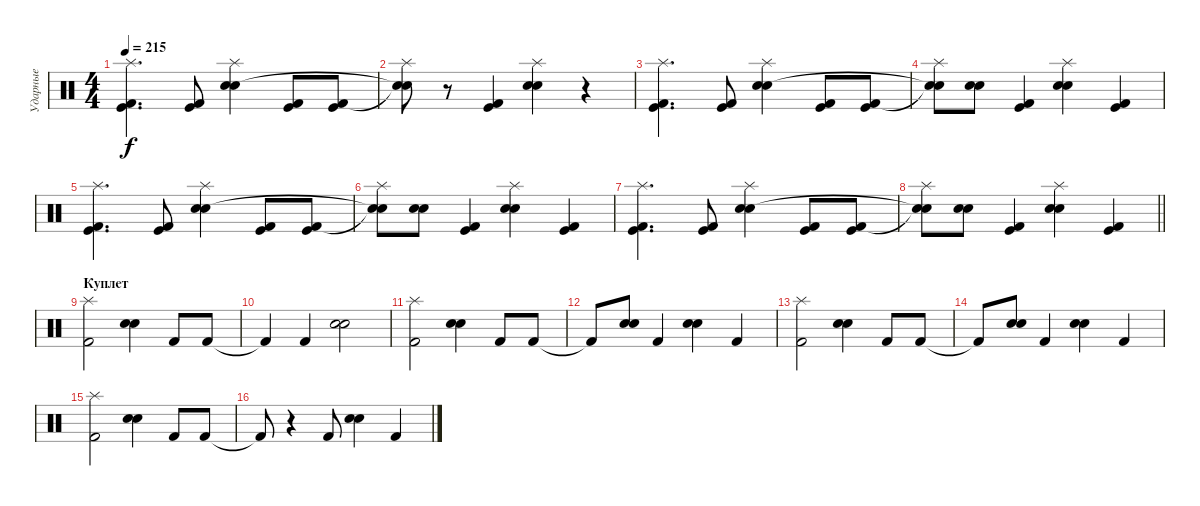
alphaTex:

\track ("Ударные" "Ударные") {instrument percussion}
\staff {score}
\articulation defaults
\ts (4 4)
\tempo 215
\clef neutral
\ks c
("Splash (hit)" "Kick (hit)" "Kick (hit) 2").4{d dy f} ("Kick (hit)" "Kick (hit) 2").8 ("Splash (hit)" "Electric Snare (hit)" "Snare (hit) 2").4 ("Kick (hit)" "Kick (hit) 2").8 ("Kick (hit)" "Kick (hit) 2").8 |
("Splash (hit)" "Snare (hit)"{t} "Snare (hit)"{t}).8 r.8 ("Kick (hit)" "Kick (hit) 2").4 ("Splash (hit)" "Electric Snare (hit)" "Snare (hit) 2").4 r.4 |
("Splash (hit)" "Kick (hit)" "Kick (hit) 2").4{d} ("Kick (hit)" "Kick (hit) 2").8 ("Splash (hit)" "Electric Snare (hit)" "Snare (hit) 2").4 ("Kick (hit)" "Kick (hit) 2").8 ("Kick (hit)" "Kick (hit) 2").8 |
("Splash (hit)" "Snare (hit)"{t} "Snare (hit)"{t}).8 ("Electric Snare (hit)" "Snare (hit) 2").8 ("Kick (hit)" "Kick (hit) 2").4 ("Splash (hit)" "Electric Snare (hit)" "Snare (hit) 2").4 ("Kick (hit)" "Kick (hit) 2").4 |
("Splash (hit)" "Kick (hit)" "Kick (hit) 2").4{d} ("Kick (hit)" "Kick (hit) 2").8 ("Splash (hit)" "Electric Snare (hit)" "Snare (hit) 2").4 ("Kick (hit)" "Kick (hit) 2").8 ("Kick (hit)" "Kick (hit) 2").8 |
("Splash (hit)" "Snare (hit)"{t} "Snare (hit)"{t}).8 ("Electric Snare (hit)" "Snare (hit) 2").8 ("Kick (hit)" "Kick (hit) 2").4 ("Splash (hit)" "Electric Snare (hit)" "Snare (hit) 2").4 ("Kick (hit)" "Kick (hit) 2").4 |
("Splash (hit)" "Kick (hit)" "Kick (hit) 2").4{d} ("Kick (hit)" "Kick (hit) 2").8 ("Splash (hit)" "Electric Snare (hit)" "Snare (hit) 2").4 ("Kick (hit)" "Kick (hit) 2").8 ("Kick (hit)" "Kick (hit) 2").8 |
\barLineRight lightlight
("Splash (hit)" "Snare (hit)"{t} "Snare (hit)"{t}).8 ("Electric Snare (hit)" "Snare (hit) 2").8 ("Kick (hit)" "Kick (hit) 2").4 ("Splash (hit)" "Electric Snare (hit)" "Snare (hit) 2").4 ("Kick (hit)" "Kick (hit) 2").4 |
\section ("" "Куплет")
("Splash (hit)" "Kick (hit) 2").2 ("Electric Snare (hit)" "Snare (hit) 2").4 "Kick (hit) 2".8 "Kick (hit) 2".8 |
"Kick (hit) 2"{t}.4 "Kick (hit) 2".4 ("Electric Snare (hit)" "Snare (hit) 2").2 |
("Splash (hit)" "Kick (hit) 2").2 ("Electric Snare (hit)" "Snare (hit) 2").4 "Kick (hit) 2".8 "Kick (hit) 2".8 |
"Kick (hit) 2"{t}.8 ("Electric Snare (hit)" "Snare (hit) 2").8 "Kick (hit) 2".4 ("Electric Snare (hit)" "Snare (hit) 2").4 "Kick (hit) 2".4 |
("Splash (hit)" "Kick (hit) 2").2 ("Electric Snare (hit)" "Snare (hit) 2").4 "Kick (hit) 2".8 "Kick (hit) 2".8 |
"Kick (hit) 2"{t}.8 ("Electric Snare (hit)" "Snare (hit) 2").8 "Kick (hit) 2".4 ("Electric Snare (hit)" "Snare (hit) 2").4 "Kick (hit) 2".4 |
("Splash (hit)" "Kick (hit) 2").2 ("Electric Snare (hit)" "Snare (hit) 2").4 "Kick (hit) 2".8 "Kick (hit) 2".8 |
"Kick (hit) 2"{t}.8 r.4 "Kick (hit) 2".8 ("Electric Snare (hit)" "Snare (hit) 2").4 "Kick (hit) 2".4
